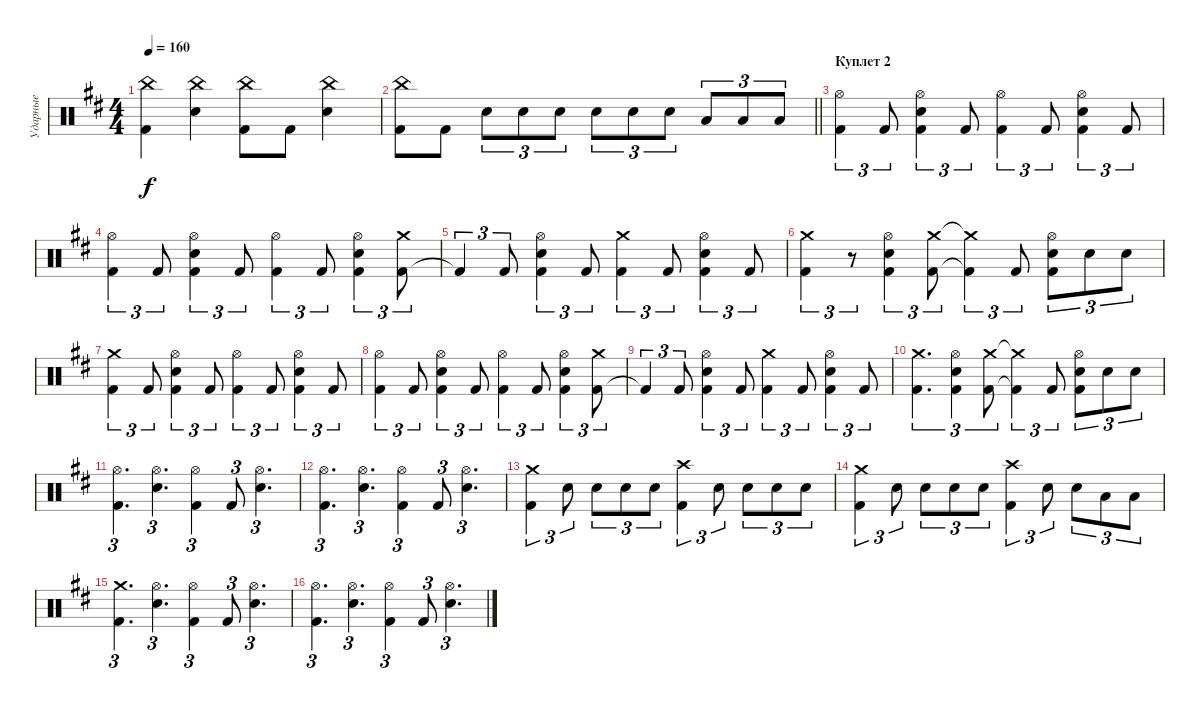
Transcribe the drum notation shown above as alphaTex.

\track ("Ударные" "Ударные") {instrument percussion}
\staff {score}
\articulation defaults
\ts (4 4)
\tempo 160
\clef neutral
\ks bminor
("Kick (hit) 2" "China (hit)").4{dy f} ("Snare (hit) 2" "China (hit)").4 ("Kick (hit) 2" "China (hit)").8 "Kick (hit) 2".8 ("Snare (hit) 2" "China (hit)").4 |
\barLineRight lightlight
("Kick (hit) 2" "China (hit)").8 "Kick (hit) 2".8 "Snare (hit) 2".8{tu (3 2)} "Snare (hit) 2".8{tu (3 2)} "Snare (hit) 2".8{tu (3 2)} "Snare (hit) 2".8{tu (3 2)} "Snare (hit) 2".8{tu (3 2)} "Snare (hit) 2".8{tu (3 2)} "Low Tom (hit)".8{tu (3 2)} "Low Tom (hit)".8{tu (3 2)} "Low Tom (hit)".8{tu (3 2)} |
\section ("" "Куплет 2")
("Hi-Hat (open)" "Kick (hit) 2").4{tu (3 2)} "Kick (hit) 2".8{tu (3 2)} ("Hi-Hat (open)" "Kick (hit) 2" "Snare (hit) 2").4{tu (3 2)} "Kick (hit) 2".8{tu (3 2)} ("Hi-Hat (open)" "Kick (hit) 2").4{tu (3 2)} "Kick (hit) 2".8{tu (3 2)} ("Kick (hit) 2" "Hi-Hat (open)" "Snare (hit) 2").4{tu (3 2)} "Kick (hit) 2".8{tu (3 2)} |
("Hi-Hat (open)" "Kick (hit) 2").4{tu (3 2)} "Kick (hit) 2".8{tu (3 2)} ("Hi-Hat (open)" "Kick (hit) 2" "Snare (hit) 2").4{tu (3 2)} "Kick (hit) 2".8{tu (3 2)} ("Hi-Hat (open)" "Kick (hit) 2").4{tu (3 2)} "Kick (hit) 2".8{tu (3 2)} ("Kick (hit) 2" "Hi-Hat (open)" "Snare (hit) 2").4{tu (3 2)} ("Kick (hit) 2" "Crash medium (hit)").8{tu (3 2)} |
"Kick (hit) 2"{t}.4{tu (3 2)} "Kick (hit) 2".8{tu (3 2)} ("Hi-Hat (open)" "Kick (hit) 2" "Snare (hit) 2").4{tu (3 2)} "Kick (hit) 2".8{tu (3 2)} ("Crash medium (hit)" "Kick (hit) 2").4{tu (3 2)} "Kick (hit) 2".8{tu (3 2)} ("Kick (hit) 2" "Hi-Hat (open)" "Snare (hit) 2").4{tu (3 2)} "Kick (hit) 2".8{tu (3 2)} |
("Crash medium (hit)" "Kick (hit) 2").4{tu (3 2)} r.8{tu (3 2)} ("Hi-Hat (open)" "Kick (hit) 2" "Snare (hit) 2").4{tu (3 2)} ("Crash medium (hit)" "Kick (hit) 2").8{tu (3 2)} ("Crash medium (hit)"{t} "Kick (hit) 2"{t}).4{tu (3 2)} "Kick (hit) 2".8{tu (3 2)} ("Kick (hit) 2" "Hi-Hat (open)" "Snare (hit) 2").8{tu (3 2)} "Snare (hit) 2".8{tu (3 2)} "Snare (hit) 2".8{tu (3 2)} |
("Crash medium (hit)" "Kick (hit) 2").4{tu (3 2)} "Kick (hit) 2".8{tu (3 2)} ("Hi-Hat (open)" "Kick (hit) 2" "Snare (hit) 2").4{tu (3 2)} "Kick (hit) 2".8{tu (3 2)} ("Hi-Hat (open)" "Kick (hit) 2").4{tu (3 2)} "Kick (hit) 2".8{tu (3 2)} ("Kick (hit) 2" "Hi-Hat (open)" "Snare (hit) 2").4{tu (3 2)} "Kick (hit) 2".8{tu (3 2)} |
("Hi-Hat (open)" "Kick (hit) 2").4{tu (3 2)} "Kick (hit) 2".8{tu (3 2)} ("Hi-Hat (open)" "Kick (hit) 2" "Snare (hit) 2").4{tu (3 2)} "Kick (hit) 2".8{tu (3 2)} ("Hi-Hat (open)" "Kick (hit) 2").4{tu (3 2)} "Kick (hit) 2".8{tu (3 2)} ("Kick (hit) 2" "Hi-Hat (open)" "Snare (hit) 2").4{tu (3 2)} ("Kick (hit) 2" "Crash medium (hit)").8{tu (3 2)} |
"Kick (hit) 2"{t}.4{tu (3 2)} "Kick (hit) 2".8{tu (3 2)} ("Hi-Hat (open)" "Kick (hit) 2" "Snare (hit) 2").4{tu (3 2)} "Kick (hit) 2".8{tu (3 2)} ("Crash medium (hit)" "Kick (hit) 2").4{tu (3 2)} "Kick (hit) 2".8{tu (3 2)} ("Kick (hit) 2" "Hi-Hat (open)" "Snare (hit) 2").4{tu (3 2)} "Kick (hit) 2".8{tu (3 2)} |
("Crash medium (hit)" "Kick (hit) 2").4{d tu (3 2)} ("Hi-Hat (open)" "Kick (hit) 2" "Snare (hit) 2").4{tu (3 2)} ("Crash medium (hit)" "Kick (hit) 2").8{tu (3 2)} ("Crash medium (hit)"{t} "Kick (hit) 2"{t}).4{tu (3 2)} "Kick (hit) 2".8{tu (3 2)} ("Kick (hit) 2" "Hi-Hat (open)" "Snare (hit) 2").8{tu (3 2)} "Snare (hit) 2".8{tu (3 2)} "Snare (hit) 2".8{tu (3 2)} |
("Hi-Hat (open)" "Kick (hit) 2").4{d tu (3 2)} ("Hi-Hat (open)" "Snare (hit) 2").4{d tu (3 2)} ("Hi-Hat (open)" "Kick (hit) 2").4{tu (3 2)} "Kick (hit) 2".8{tu (3 2)} ("Hi-Hat (open)" "Snare (hit) 2").4{d tu (3 2)} |
("Hi-Hat (open)" "Kick (hit) 2").4{d tu (3 2)} ("Hi-Hat (open)" "Snare (hit) 2").4{d tu (3 2)} ("Hi-Hat (open)" "Kick (hit) 2").4{tu (3 2)} "Kick (hit) 2".8{tu (3 2)} ("Hi-Hat (open)" "Snare (hit) 2").4{d tu (3 2)} |
("Crash medium (hit)" "Kick (hit) 2").4{tu (3 2)} "Snare (hit) 2".8{tu (3 2)} "Snare (hit) 2".8{tu (3 2)} "Snare (hit) 2".8{tu (3 2)} "Snare (hit) 2".8{tu (3 2)} ("Kick (hit) 2" "Crash high (hit)").4{tu (3 2)} "Snare (hit) 2".8{tu (3 2)} "Snare (hit) 2".8{tu (3 2)} "Snare (hit) 2".8{tu (3 2)} "Snare (hit) 2".8{tu (3 2)} |
("Crash medium (hit)" "Kick (hit) 2").4{tu (3 2)} "Snare (hit) 2".8{tu (3 2)} "Snare (hit) 2".8{tu (3 2)} "Snare (hit) 2".8{tu (3 2)} "Snare (hit) 2".8{tu (3 2)} ("Kick (hit) 2" "Crash high (hit)").4{tu (3 2)} "Snare (hit) 2".8{tu (3 2)} "Snare (hit) 2".8{tu (3 2)} "Low Tom (hit)".8{tu (3 2)} "Low Tom (hit)".8{tu (3 2)} |
("Crash medium (hit)" "Kick (hit) 2").4{d tu (3 2)} ("Hi-Hat (open)" "Snare (hit) 2").4{d tu (3 2)} ("Hi-Hat (open)" "Kick (hit) 2").4{tu (3 2)} "Kick (hit) 2".8{tu (3 2)} ("Hi-Hat (open)" "Snare (hit) 2").4{d tu (3 2)} |
("Hi-Hat (open)" "Kick (hit) 2").4{d tu (3 2)} ("Hi-Hat (open)" "Snare (hit) 2").4{d tu (3 2)} ("Hi-Hat (open)" "Kick (hit) 2").4{tu (3 2)} "Kick (hit) 2".8{tu (3 2)} ("Hi-Hat (open)" "Snare (hit) 2").4{d tu (3 2)}
